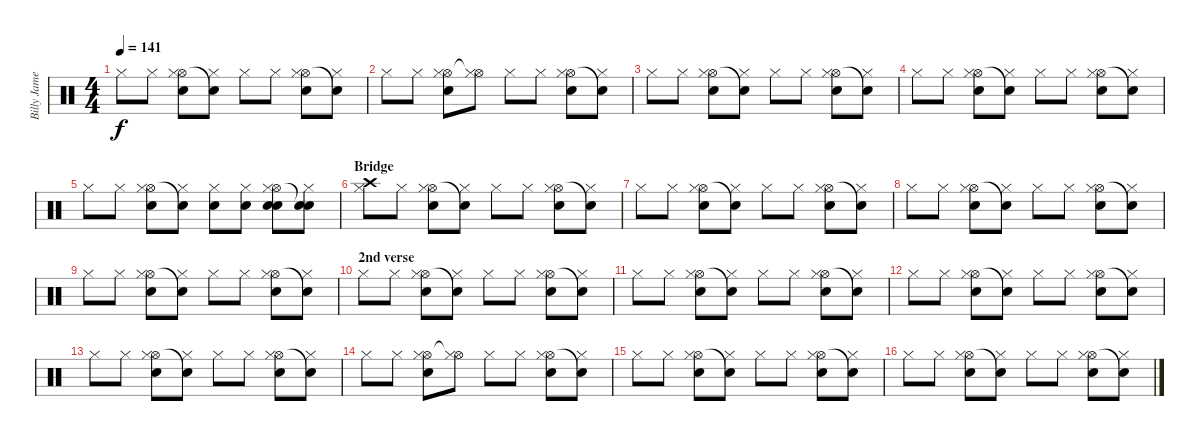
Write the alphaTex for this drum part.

\track ("Billy James (Drums)" "Billy Jame") {instrument percussion}
\staff {score}
\articulation defaults
\ts (4 4)
\tempo 141
\clef neutral
\ks c "Hi-Hat (closed)".8{dy f} "Hi-Hat (closed)".8
("Hi-Hat (open)" "Snare (hit) 2" "Hi-Hat (closed)").8 ("Snare (hit)"{t} "Hi-Hat (closed)").8 "Hi-Hat (closed)".8 "Hi-Hat (closed)".8 ("Hi-Hat (open)" "Snare (hit) 2" "Hi-Hat (closed)").8 ("Snare (hit)"{t} "Hi-Hat (closed)").8 |
"Hi-Hat (closed)".8 "Hi-Hat (closed)".8 ("Hi-Hat (open)" "Snare (hit) 2" "Hi-Hat (closed)").8 ("Hi-Hat (open)"{t} "Hi-Hat (closed)").8 "Hi-Hat (closed)".8 "Hi-Hat (closed)".8 ("Hi-Hat (open)" "Snare (hit) 2" "Hi-Hat (closed)").8 ("Snare (hit)"{t} "Hi-Hat (closed)").8 |
"Hi-Hat (closed)".8 "Hi-Hat (closed)".8 ("Hi-Hat (open)" "Snare (hit) 2" "Hi-Hat (closed)").8 ("Snare (hit)"{t} "Hi-Hat (closed)").8 "Hi-Hat (closed)".8 "Hi-Hat (closed)".8 ("Hi-Hat (open)" "Snare (hit) 2" "Hi-Hat (closed)").8 ("Snare (hit)"{t} "Hi-Hat (closed)").8 |
"Hi-Hat (closed)".8 "Hi-Hat (closed)".8 ("Hi-Hat (open)" "Snare (hit) 2" "Hi-Hat (closed)").8 ("Snare (hit)"{t} "Hi-Hat (closed)").8 "Hi-Hat (closed)".8 "Hi-Hat (closed)".8 ("Hi-Hat (open)" "Snare (hit) 2" "Hi-Hat (closed)").8 ("Snare (hit)"{t} "Hi-Hat (closed)").8 |
"Hi-Hat (closed)".8 "Hi-Hat (closed)".8 ("Hi-Hat (open)" "Snare (hit) 2" "Hi-Hat (closed)").8 ("Snare (hit)"{t} "Hi-Hat (closed)").8 ("Hi-Hat (closed)" "Snare (hit) 2").8 ("Hi-Hat (closed)" "Snare (hit) 2").8 ("Hi-Hat (open)" "Snare (hit) 2" "Hi-Hat (closed)" "Snare (hit) 2").8 ("Snare (hit)"{t} "Hi-Hat (closed)" "Snare (hit) 2").8 |
\section ("" "Bridge")
("Crash high (hit)" "Hi-Hat (closed)").8 "Hi-Hat (closed)".8 ("Hi-Hat (open)" "Snare (hit) 2" "Hi-Hat (closed)").8 ("Snare (hit)"{t} "Hi-Hat (closed)").8 "Hi-Hat (closed)".8 "Hi-Hat (closed)".8 ("Hi-Hat (open)" "Snare (hit) 2" "Hi-Hat (closed)").8 ("Snare (hit)"{t} "Hi-Hat (closed)").8 |
"Hi-Hat (closed)".8 "Hi-Hat (closed)".8 ("Hi-Hat (open)" "Snare (hit) 2" "Hi-Hat (closed)").8 ("Snare (hit)"{t} "Hi-Hat (closed)").8 "Hi-Hat (closed)".8 "Hi-Hat (closed)".8 ("Hi-Hat (open)" "Snare (hit) 2" "Hi-Hat (closed)").8 ("Snare (hit)"{t} "Hi-Hat (closed)").8 |
"Hi-Hat (closed)".8 "Hi-Hat (closed)".8 ("Hi-Hat (open)" "Snare (hit) 2" "Hi-Hat (closed)").8 ("Snare (hit)"{t} "Hi-Hat (closed)").8 "Hi-Hat (closed)".8 "Hi-Hat (closed)".8 ("Hi-Hat (open)" "Snare (hit) 2" "Hi-Hat (closed)").8 ("Snare (hit)"{t} "Hi-Hat (closed)").8 |
"Hi-Hat (closed)".8 "Hi-Hat (closed)".8 ("Hi-Hat (open)" "Snare (hit) 2" "Hi-Hat (closed)").8 ("Snare (hit)"{t} "Hi-Hat (closed)").8 "Hi-Hat (closed)".8 "Hi-Hat (closed)".8 ("Hi-Hat (open)" "Snare (hit) 2" "Hi-Hat (closed)").8 ("Snare (hit)"{t} "Hi-Hat (closed)").8 |
\section ("" "2nd verse")
"Hi-Hat (closed)".8 "Hi-Hat (closed)".8 ("Hi-Hat (open)" "Snare (hit) 2" "Hi-Hat (closed)").8 ("Snare (hit)"{t} "Hi-Hat (closed)").8 "Hi-Hat (closed)".8 "Hi-Hat (closed)".8 ("Hi-Hat (open)" "Snare (hit) 2" "Hi-Hat (closed)").8 ("Snare (hit)"{t} "Hi-Hat (closed)").8 |
"Hi-Hat (closed)".8 "Hi-Hat (closed)".8 ("Hi-Hat (open)" "Snare (hit) 2" "Hi-Hat (closed)").8 ("Snare (hit)"{t} "Hi-Hat (closed)").8 "Hi-Hat (closed)".8 "Hi-Hat (closed)".8 ("Hi-Hat (open)" "Snare (hit) 2" "Hi-Hat (closed)").8 ("Snare (hit)"{t} "Hi-Hat (closed)").8 |
"Hi-Hat (closed)".8 "Hi-Hat (closed)".8 ("Hi-Hat (open)" "Snare (hit) 2" "Hi-Hat (closed)").8 ("Snare (hit)"{t} "Hi-Hat (closed)").8 "Hi-Hat (closed)".8 "Hi-Hat (closed)".8 ("Hi-Hat (open)" "Snare (hit) 2" "Hi-Hat (closed)").8 ("Snare (hit)"{t} "Hi-Hat (closed)").8 |
"Hi-Hat (closed)".8 "Hi-Hat (closed)".8 ("Hi-Hat (open)" "Snare (hit) 2" "Hi-Hat (closed)").8 ("Snare (hit)"{t} "Hi-Hat (closed)").8 "Hi-Hat (closed)".8 "Hi-Hat (closed)".8 ("Hi-Hat (open)" "Snare (hit) 2" "Hi-Hat (closed)").8 ("Snare (hit)"{t} "Hi-Hat (closed)").8 |
"Hi-Hat (closed)".8 "Hi-Hat (closed)".8 ("Hi-Hat (open)" "Snare (hit) 2" "Hi-Hat (closed)").8 ("Hi-Hat (open)"{t} "Hi-Hat (closed)").8 "Hi-Hat (closed)".8 "Hi-Hat (closed)".8 ("Hi-Hat (open)" "Snare (hit) 2" "Hi-Hat (closed)").8 ("Snare (hit)"{t} "Hi-Hat (closed)").8 |
"Hi-Hat (closed)".8 "Hi-Hat (closed)".8 ("Hi-Hat (open)" "Snare (hit) 2" "Hi-Hat (closed)").8 ("Snare (hit)"{t} "Hi-Hat (closed)").8 "Hi-Hat (closed)".8 "Hi-Hat (closed)".8 ("Hi-Hat (open)" "Snare (hit) 2" "Hi-Hat (closed)").8 ("Snare (hit)"{t} "Hi-Hat (closed)").8 |
"Hi-Hat (closed)".8 "Hi-Hat (closed)".8 ("Hi-Hat (open)" "Snare (hit) 2" "Hi-Hat (closed)").8 ("Snare (hit)"{t} "Hi-Hat (closed)").8 "Hi-Hat (closed)".8 "Hi-Hat (closed)".8 ("Hi-Hat (open)" "Snare (hit) 2" "Hi-Hat (closed)").8 ("Snare (hit)"{t} "Hi-Hat (closed)").8
